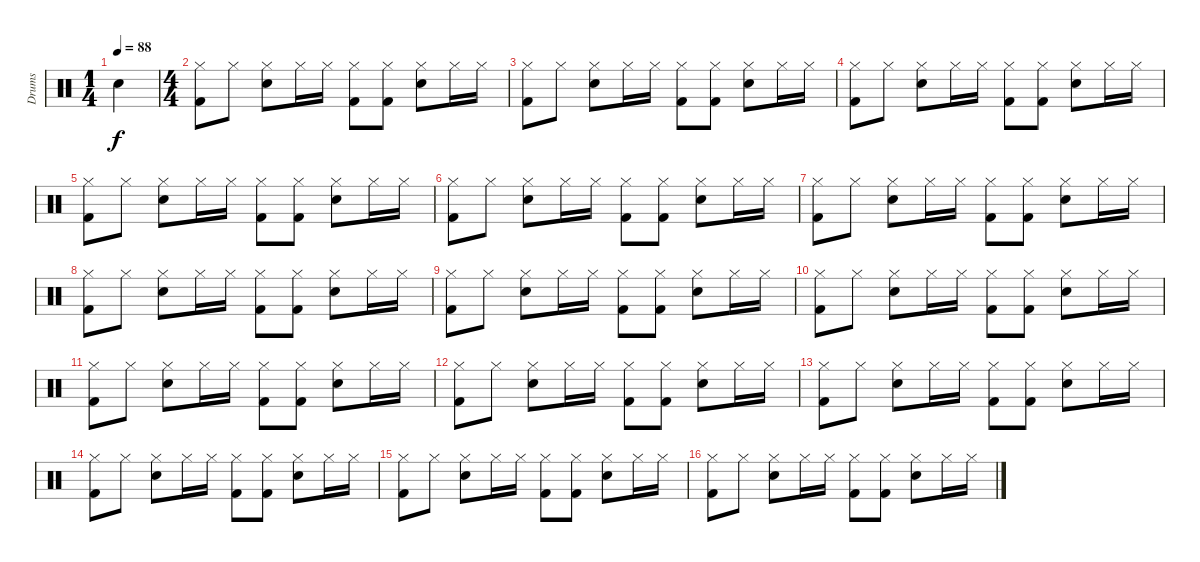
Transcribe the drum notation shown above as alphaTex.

\track ("Drums" "Drums") {instrument percussion}
\staff {score}
\articulation defaults
\ts (1 4)
\tempo 88
\clef neutral
\ks c "Electric Snare (hit)".4{dy f}
|
\ts (4 4)
("Hi-Hat (closed)" "Kick (hit) 2").8 "Hi-Hat (closed)".8 ("Hi-Hat (closed)" "Electric Snare (hit)").8 "Hi-Hat (closed)".16 "Hi-Hat (closed)".16 ("Hi-Hat (closed)" "Kick (hit) 2").8 ("Hi-Hat (closed)" "Kick (hit) 2").8 ("Hi-Hat (closed)" "Electric Snare (hit)").8 "Hi-Hat (closed)".16 "Hi-Hat (closed)".16 |
("Hi-Hat (closed)" "Kick (hit) 2").8 "Hi-Hat (closed)".8 ("Hi-Hat (closed)" "Electric Snare (hit)").8 "Hi-Hat (closed)".16 "Hi-Hat (closed)".16 ("Hi-Hat (closed)" "Kick (hit) 2").8 ("Hi-Hat (closed)" "Kick (hit) 2").8 ("Hi-Hat (closed)" "Electric Snare (hit)").8 "Hi-Hat (closed)".16 "Hi-Hat (closed)".16 |
("Hi-Hat (closed)" "Kick (hit) 2").8 "Hi-Hat (closed)".8 ("Hi-Hat (closed)" "Electric Snare (hit)").8 "Hi-Hat (closed)".16 "Hi-Hat (closed)".16 ("Hi-Hat (closed)" "Kick (hit) 2").8 ("Hi-Hat (closed)" "Kick (hit) 2").8 ("Hi-Hat (closed)" "Electric Snare (hit)").8 "Hi-Hat (closed)".16 "Hi-Hat (closed)".16 |
("Hi-Hat (closed)" "Kick (hit) 2").8 "Hi-Hat (closed)".8 ("Hi-Hat (closed)" "Electric Snare (hit)").8 "Hi-Hat (closed)".16 "Hi-Hat (closed)".16 ("Hi-Hat (closed)" "Kick (hit) 2").8 ("Hi-Hat (closed)" "Kick (hit) 2").8 ("Hi-Hat (closed)" "Electric Snare (hit)").8 "Hi-Hat (closed)".16 "Hi-Hat (closed)".16 |
("Hi-Hat (closed)" "Kick (hit) 2").8 "Hi-Hat (closed)".8 ("Hi-Hat (closed)" "Electric Snare (hit)").8 "Hi-Hat (closed)".16 "Hi-Hat (closed)".16 ("Hi-Hat (closed)" "Kick (hit) 2").8 ("Hi-Hat (closed)" "Kick (hit) 2").8 ("Hi-Hat (closed)" "Electric Snare (hit)").8 "Hi-Hat (closed)".16 "Hi-Hat (closed)".16 |
("Hi-Hat (closed)" "Kick (hit) 2").8 "Hi-Hat (closed)".8 ("Hi-Hat (closed)" "Electric Snare (hit)").8 "Hi-Hat (closed)".16 "Hi-Hat (closed)".16 ("Hi-Hat (closed)" "Kick (hit) 2").8 ("Hi-Hat (closed)" "Kick (hit) 2").8 ("Hi-Hat (closed)" "Electric Snare (hit)").8 "Hi-Hat (closed)".16 "Hi-Hat (closed)".16 |
("Hi-Hat (closed)" "Kick (hit) 2").8 "Hi-Hat (closed)".8 ("Hi-Hat (closed)" "Electric Snare (hit)").8 "Hi-Hat (closed)".16 "Hi-Hat (closed)".16 ("Hi-Hat (closed)" "Kick (hit) 2").8 ("Hi-Hat (closed)" "Kick (hit) 2").8 ("Hi-Hat (closed)" "Electric Snare (hit)").8 "Hi-Hat (closed)".16 "Hi-Hat (closed)".16 |
("Hi-Hat (closed)" "Kick (hit) 2").8 "Hi-Hat (closed)".8 ("Hi-Hat (closed)" "Electric Snare (hit)").8 "Hi-Hat (closed)".16 "Hi-Hat (closed)".16 ("Hi-Hat (closed)" "Kick (hit) 2").8 ("Hi-Hat (closed)" "Kick (hit) 2").8 ("Hi-Hat (closed)" "Electric Snare (hit)").8 "Hi-Hat (closed)".16 "Hi-Hat (closed)".16 |
("Hi-Hat (closed)" "Kick (hit) 2").8 "Hi-Hat (closed)".8 ("Hi-Hat (closed)" "Electric Snare (hit)").8 "Hi-Hat (closed)".16 "Hi-Hat (closed)".16 ("Hi-Hat (closed)" "Kick (hit) 2").8 ("Hi-Hat (closed)" "Kick (hit) 2").8 ("Hi-Hat (closed)" "Electric Snare (hit)").8 "Hi-Hat (closed)".16 "Hi-Hat (closed)".16 |
("Hi-Hat (closed)" "Kick (hit) 2").8 "Hi-Hat (closed)".8 ("Hi-Hat (closed)" "Electric Snare (hit)").8 "Hi-Hat (closed)".16 "Hi-Hat (closed)".16 ("Hi-Hat (closed)" "Kick (hit) 2").8 ("Hi-Hat (closed)" "Kick (hit) 2").8 ("Hi-Hat (closed)" "Electric Snare (hit)").8 "Hi-Hat (closed)".16 "Hi-Hat (closed)".16 |
("Hi-Hat (closed)" "Kick (hit) 2").8 "Hi-Hat (closed)".8 ("Hi-Hat (closed)" "Electric Snare (hit)").8 "Hi-Hat (closed)".16 "Hi-Hat (closed)".16 ("Hi-Hat (closed)" "Kick (hit) 2").8 ("Hi-Hat (closed)" "Kick (hit) 2").8 ("Hi-Hat (closed)" "Electric Snare (hit)").8 "Hi-Hat (closed)".16 "Hi-Hat (closed)".16 |
("Hi-Hat (closed)" "Kick (hit) 2").8 "Hi-Hat (closed)".8 ("Hi-Hat (closed)" "Electric Snare (hit)").8 "Hi-Hat (closed)".16 "Hi-Hat (closed)".16 ("Hi-Hat (closed)" "Kick (hit) 2").8 ("Hi-Hat (closed)" "Kick (hit) 2").8 ("Hi-Hat (closed)" "Electric Snare (hit)").8 "Hi-Hat (closed)".16 "Hi-Hat (closed)".16 |
("Hi-Hat (closed)" "Kick (hit) 2").8 "Hi-Hat (closed)".8 ("Hi-Hat (closed)" "Electric Snare (hit)").8 "Hi-Hat (closed)".16 "Hi-Hat (closed)".16 ("Hi-Hat (closed)" "Kick (hit) 2").8 ("Hi-Hat (closed)" "Kick (hit) 2").8 ("Hi-Hat (closed)" "Electric Snare (hit)").8 "Hi-Hat (closed)".16 "Hi-Hat (closed)".16 |
("Hi-Hat (closed)" "Kick (hit) 2").8 "Hi-Hat (closed)".8 ("Hi-Hat (closed)" "Electric Snare (hit)").8 "Hi-Hat (closed)".16 "Hi-Hat (closed)".16 ("Hi-Hat (closed)" "Kick (hit) 2").8 ("Hi-Hat (closed)" "Kick (hit) 2").8 ("Hi-Hat (closed)" "Electric Snare (hit)").8 "Hi-Hat (closed)".16 "Hi-Hat (closed)".16 |
("Hi-Hat (closed)" "Kick (hit) 2").8 "Hi-Hat (closed)".8 ("Hi-Hat (closed)" "Electric Snare (hit)").8 "Hi-Hat (closed)".16 "Hi-Hat (closed)".16 ("Hi-Hat (closed)" "Kick (hit) 2").8 ("Hi-Hat (closed)" "Kick (hit) 2").8 ("Hi-Hat (closed)" "Electric Snare (hit)").8 "Hi-Hat (closed)".16 "Hi-Hat (closed)".16
